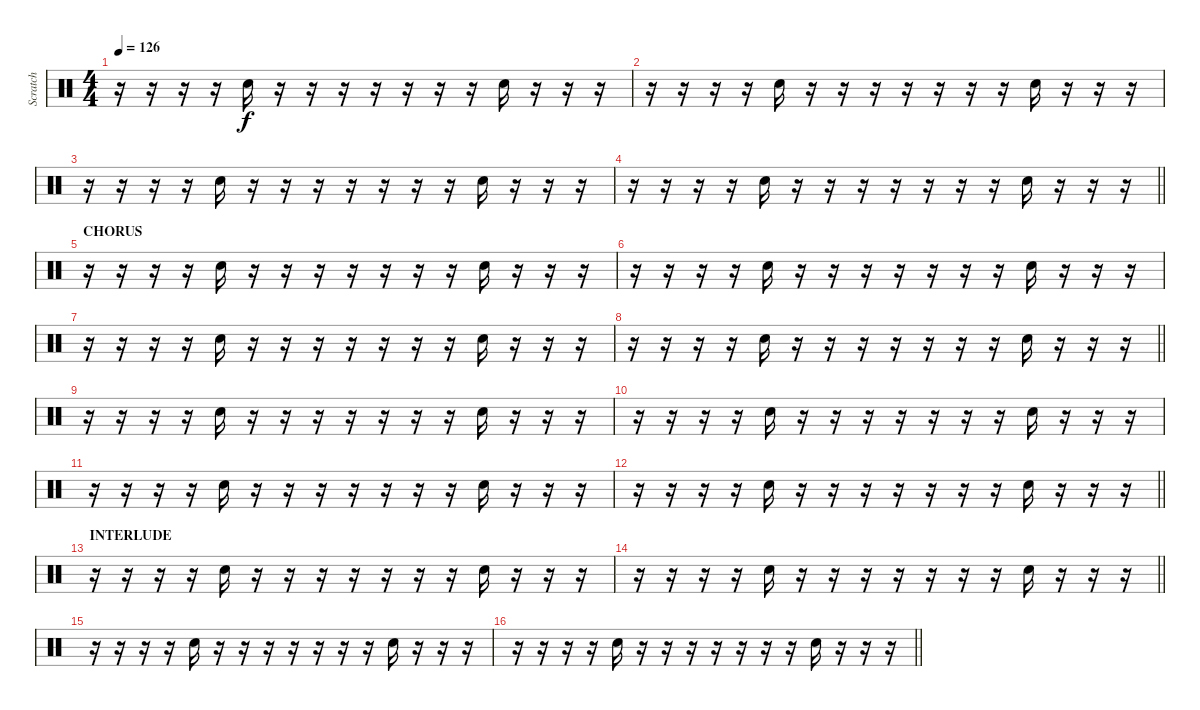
\track ("Scratch" "Scratch") {instrument percussion}
\staff {score}
\articulation defaults
\ts (4 4)
\tempo 126
\clef neutral
\ks c
r.16{dy f} r.16 r.16 r.16 "Hand Clap (hit)".16 r.16 r.16 r.16 r.16 r.16 r.16 r.16 "Hand Clap (hit)".16 r.16 r.16 r.16 |
r.16 r.16 r.16 r.16 "Hand Clap (hit)".16 r.16 r.16 r.16 r.16 r.16 r.16 r.16 "Hand Clap (hit)".16 r.16 r.16 r.16 |
r.16 r.16 r.16 r.16 "Hand Clap (hit)".16 r.16 r.16 r.16 r.16 r.16 r.16 r.16 "Hand Clap (hit)".16 r.16 r.16 r.16 |
\barLineRight lightlight
r.16 r.16 r.16 r.16 "Hand Clap (hit)".16 r.16 r.16 r.16 r.16 r.16 r.16 r.16 "Hand Clap (hit)".16 r.16 r.16 r.16 |
\section ("" "CHORUS")
r.16 r.16 r.16 r.16 "Hand Clap (hit)".16 r.16 r.16 r.16 r.16 r.16 r.16 r.16 "Hand Clap (hit)".16 r.16 r.16 r.16 |
r.16 r.16 r.16 r.16 "Hand Clap (hit)".16 r.16 r.16 r.16 r.16 r.16 r.16 r.16 "Hand Clap (hit)".16 r.16 r.16 r.16 |
r.16 r.16 r.16 r.16 "Hand Clap (hit)".16 r.16 r.16 r.16 r.16 r.16 r.16 r.16 "Hand Clap (hit)".16 r.16 r.16 r.16 |
\barLineRight lightlight
r.16 r.16 r.16 r.16 "Hand Clap (hit)".16 r.16 r.16 r.16 r.16 r.16 r.16 r.16 "Hand Clap (hit)".16 r.16 r.16 r.16 |
r.16 r.16 r.16 r.16 "Hand Clap (hit)".16 r.16 r.16 r.16 r.16 r.16 r.16 r.16 "Hand Clap (hit)".16 r.16 r.16 r.16 |
r.16 r.16 r.16 r.16 "Hand Clap (hit)".16 r.16 r.16 r.16 r.16 r.16 r.16 r.16 "Hand Clap (hit)".16 r.16 r.16 r.16 |
r.16 r.16 r.16 r.16 "Hand Clap (hit)".16 r.16 r.16 r.16 r.16 r.16 r.16 r.16 "Hand Clap (hit)".16 r.16 r.16 r.16 |
\barLineRight lightlight
r.16 r.16 r.16 r.16 "Hand Clap (hit)".16 r.16 r.16 r.16 r.16 r.16 r.16 r.16 "Hand Clap (hit)".16 r.16 r.16 r.16 |
\section ("" "INTERLUDE")
r.16 r.16 r.16 r.16 "Hand Clap (hit)".16 r.16 r.16 r.16 r.16 r.16 r.16 r.16 "Hand Clap (hit)".16 r.16 r.16 r.16 |
\barLineRight lightlight
r.16 r.16 r.16 r.16 "Hand Clap (hit)".16 r.16 r.16 r.16 r.16 r.16 r.16 r.16 "Hand Clap (hit)".16 r.16 r.16 r.16 |
r.16 r.16 r.16 r.16 "Hand Clap (hit)".16 r.16 r.16 r.16 r.16 r.16 r.16 r.16 "Hand Clap (hit)".16 r.16 r.16 r.16 |
\barLineRight lightlight
r.16 r.16 r.16 r.16 "Hand Clap (hit)".16 r.16 r.16 r.16 r.16 r.16 r.16 r.16 "Hand Clap (hit)".16 r.16 r.16 r.16
